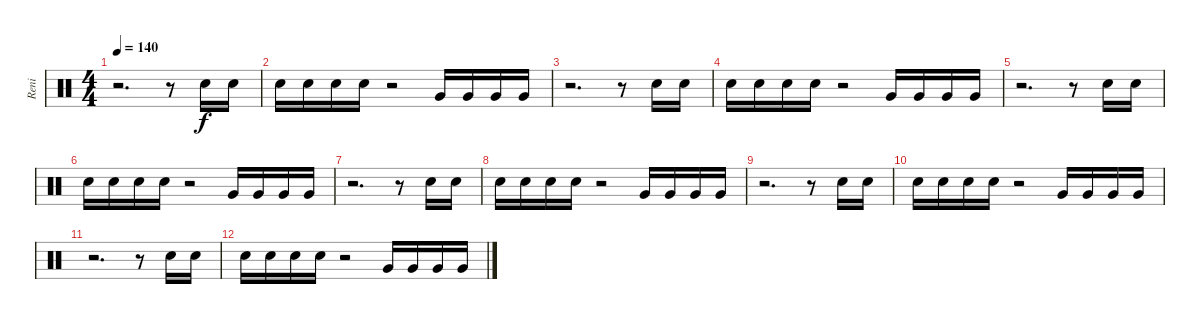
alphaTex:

\track ("Reni" "Reni") {instrument percussion}
\staff {score}
\articulation defaults
\ts (4 4)
\tempo 140
\clef neutral
\ks c
r.2{d dy f} r.8 "Snare (hit) 2".16 "Snare (hit) 2".16 |
"Snare (hit) 2".16 "Snare (hit) 2".16 "Snare (hit) 2".16 "Snare (hit) 2".16 r.2 "Very Low Tom (hit)".16 "Very Low Tom (hit)".16 "Very Low Tom (hit)".16 "Very Low Tom (hit)".16 |
r.2{d} r.8 "Snare (hit) 2".16 "Snare (hit) 2".16 |
"Snare (hit) 2".16 "Snare (hit) 2".16 "Snare (hit) 2".16 "Snare (hit) 2".16 r.2 "Very Low Tom (hit)".16 "Very Low Tom (hit)".16 "Very Low Tom (hit)".16 "Very Low Tom (hit)".16 |
r.2{d} r.8 "Snare (hit) 2".16 "Snare (hit) 2".16 |
"Snare (hit) 2".16 "Snare (hit) 2".16 "Snare (hit) 2".16 "Snare (hit) 2".16 r.2 "Very Low Tom (hit)".16 "Very Low Tom (hit)".16 "Very Low Tom (hit)".16 "Very Low Tom (hit)".16 |
r.2{d} r.8 "Snare (hit) 2".16 "Snare (hit) 2".16 |
"Snare (hit) 2".16 "Snare (hit) 2".16 "Snare (hit) 2".16 "Snare (hit) 2".16 r.2 "Very Low Tom (hit)".16 "Very Low Tom (hit)".16 "Very Low Tom (hit)".16 "Very Low Tom (hit)".16 |
r.2{d} r.8 "Snare (hit) 2".16 "Snare (hit) 2".16 |
"Snare (hit) 2".16 "Snare (hit) 2".16 "Snare (hit) 2".16 "Snare (hit) 2".16 r.2 "Very Low Tom (hit)".16 "Very Low Tom (hit)".16 "Very Low Tom (hit)".16 "Very Low Tom (hit)".16 |
r.2{d} r.8 "Snare (hit) 2".16 "Snare (hit) 2".16 |
"Snare (hit) 2".16 "Snare (hit) 2".16 "Snare (hit) 2".16 "Snare (hit) 2".16 r.2 "Very Low Tom (hit)".16 "Very Low Tom (hit)".16 "Very Low Tom (hit)".16 "Very Low Tom (hit)".16
